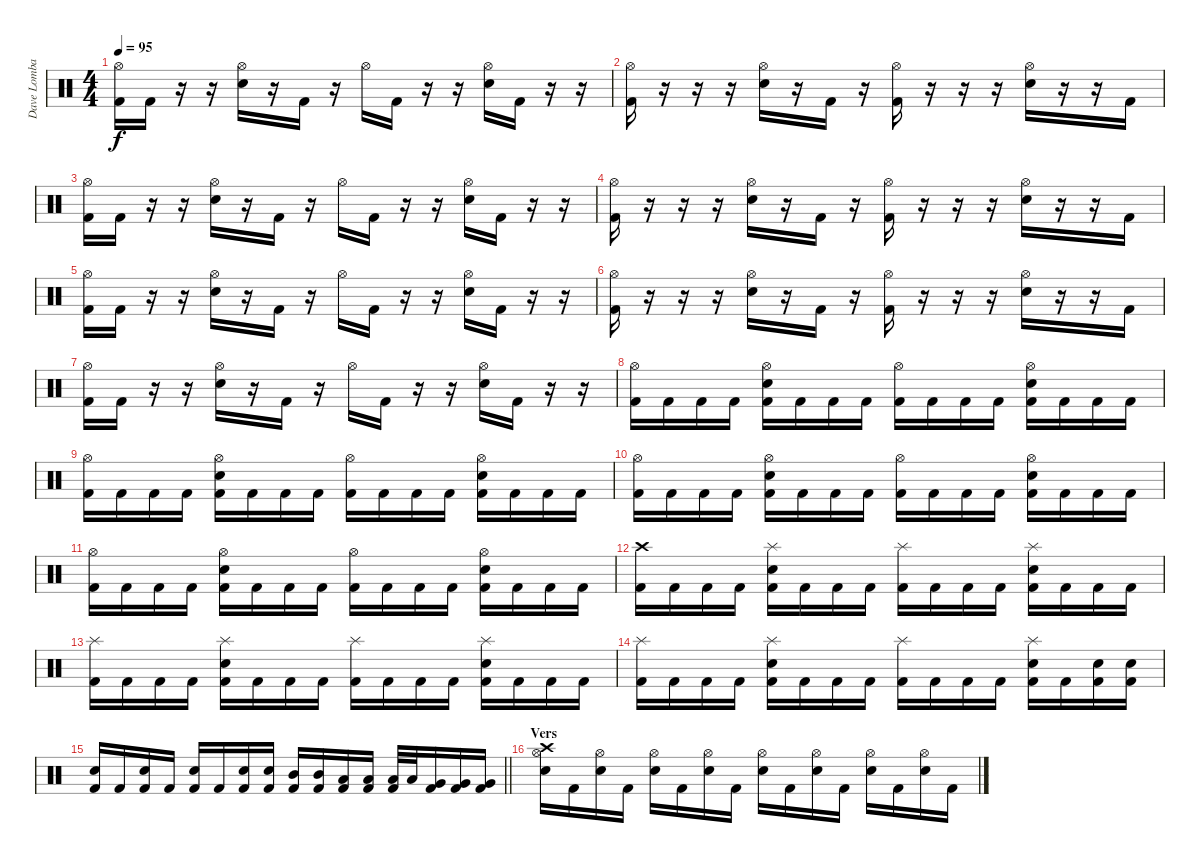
\track ("Dave Lombardo" "Dave Lomba") {instrument percussion}
\staff {score}
\articulation defaults
\ts (4 4)
\tempo 95
\clef neutral
\ks c
("Hi-Hat (open)" "Kick (hit) 2").16{dy f} "Kick (hit) 2".16 r.16 r.16 ("Hi-Hat (open)" "Snare (hit) 2").16 r.16 "Kick (hit) 2".16 r.16 "Hi-Hat (open)".16 "Kick (hit) 2".16 r.16 r.16 ("Hi-Hat (open)" "Snare (hit) 2").16 "Kick (hit) 2".16 r.16 r.16 |
("Hi-Hat (open)" "Kick (hit) 2").16 r.16 r.16 r.16 ("Hi-Hat (open)" "Snare (hit) 2").16 r.16 "Kick (hit) 2".16 r.16 ("Hi-Hat (open)" "Kick (hit) 2").16 r.16 r.16 r.16 ("Hi-Hat (open)" "Snare (hit) 2").16 r.16 r.16 "Kick (hit) 2".16 |
("Hi-Hat (open)" "Kick (hit) 2").16 "Kick (hit) 2".16 r.16 r.16 ("Hi-Hat (open)" "Snare (hit) 2").16 r.16 "Kick (hit) 2".16 r.16 "Hi-Hat (open)".16 "Kick (hit) 2".16 r.16 r.16 ("Hi-Hat (open)" "Snare (hit) 2").16 "Kick (hit) 2".16 r.16 r.16 |
("Hi-Hat (open)" "Kick (hit) 2").16 r.16 r.16 r.16 ("Hi-Hat (open)" "Snare (hit) 2").16 r.16 "Kick (hit) 2".16 r.16 ("Hi-Hat (open)" "Kick (hit) 2").16 r.16 r.16 r.16 ("Hi-Hat (open)" "Snare (hit) 2").16 r.16 r.16 "Kick (hit) 2".16 |
("Hi-Hat (open)" "Kick (hit) 2").16 "Kick (hit) 2".16 r.16 r.16 ("Hi-Hat (open)" "Snare (hit) 2").16 r.16 "Kick (hit) 2".16 r.16 "Hi-Hat (open)".16 "Kick (hit) 2".16 r.16 r.16 ("Hi-Hat (open)" "Snare (hit) 2").16 "Kick (hit) 2".16 r.16 r.16 |
("Hi-Hat (open)" "Kick (hit) 2").16 r.16 r.16 r.16 ("Hi-Hat (open)" "Snare (hit) 2").16 r.16 "Kick (hit) 2".16 r.16 ("Hi-Hat (open)" "Kick (hit) 2").16 r.16 r.16 r.16 ("Hi-Hat (open)" "Snare (hit) 2").16 r.16 r.16 "Kick (hit) 2".16 |
("Hi-Hat (open)" "Kick (hit) 2").16 "Kick (hit) 2".16 r.16 r.16 ("Hi-Hat (open)" "Snare (hit) 2").16 r.16 "Kick (hit) 2".16 r.16 "Hi-Hat (open)".16 "Kick (hit) 2".16 r.16 r.16 ("Hi-Hat (open)" "Snare (hit) 2").16 "Kick (hit) 2".16 r.16 r.16 |
("Hi-Hat (open)" "Kick (hit) 2").16 "Kick (hit) 2".16 "Kick (hit) 2".16 "Kick (hit) 2".16 ("Hi-Hat (open)" "Snare (hit) 2" "Kick (hit) 2").16 "Kick (hit) 2".16 "Kick (hit) 2".16 "Kick (hit) 2".16 ("Hi-Hat (open)" "Kick (hit) 2").16 "Kick (hit) 2".16 "Kick (hit) 2".16 "Kick (hit) 2".16 ("Hi-Hat (open)" "Snare (hit) 2" "Kick (hit) 2").16 "Kick (hit) 2".16 "Kick (hit) 2".16 "Kick (hit) 2".16 |
("Hi-Hat (open)" "Kick (hit) 2").16 "Kick (hit) 2".16 "Kick (hit) 2".16 "Kick (hit) 2".16 ("Hi-Hat (open)" "Snare (hit) 2" "Kick (hit) 2").16 "Kick (hit) 2".16 "Kick (hit) 2".16 "Kick (hit) 2".16 ("Hi-Hat (open)" "Kick (hit) 2").16 "Kick (hit) 2".16 "Kick (hit) 2".16 "Kick (hit) 2".16 ("Hi-Hat (open)" "Snare (hit) 2" "Kick (hit) 2").16 "Kick (hit) 2".16 "Kick (hit) 2".16 "Kick (hit) 2".16 |
("Hi-Hat (open)" "Kick (hit) 2").16 "Kick (hit) 2".16 "Kick (hit) 2".16 "Kick (hit) 2".16 ("Hi-Hat (open)" "Snare (hit) 2" "Kick (hit) 2").16 "Kick (hit) 2".16 "Kick (hit) 2".16 "Kick (hit) 2".16 ("Hi-Hat (open)" "Kick (hit) 2").16 "Kick (hit) 2".16 "Kick (hit) 2".16 "Kick (hit) 2".16 ("Hi-Hat (open)" "Snare (hit) 2" "Kick (hit) 2").16 "Kick (hit) 2".16 "Kick (hit) 2".16 "Kick (hit) 2".16 |
("Hi-Hat (open)" "Kick (hit) 2").16 "Kick (hit) 2".16 "Kick (hit) 2".16 "Kick (hit) 2".16 ("Hi-Hat (open)" "Snare (hit) 2" "Kick (hit) 2").16 "Kick (hit) 2".16 "Kick (hit) 2".16 "Kick (hit) 2".16 ("Hi-Hat (open)" "Kick (hit) 2").16 "Kick (hit) 2".16 "Kick (hit) 2".16 "Kick (hit) 2".16 ("Hi-Hat (open)" "Snare (hit) 2" "Kick (hit) 2").16 "Kick (hit) 2".16 "Kick (hit) 2".16 "Kick (hit) 2".16 |
("Crash high (hit)" "Kick (hit) 2").16 "Kick (hit) 2".16 "Kick (hit) 2".16 "Kick (hit) 2".16 ("Splash (hit)" "Snare (hit) 2" "Kick (hit) 2").16 "Kick (hit) 2".16 "Kick (hit) 2".16 "Kick (hit) 2".16 ("Splash (hit)" "Kick (hit) 2").16 "Kick (hit) 2".16 "Kick (hit) 2".16 "Kick (hit) 2".16 ("Splash (hit)" "Snare (hit) 2" "Kick (hit) 2").16 "Kick (hit) 2".16 "Kick (hit) 2".16 "Kick (hit) 2".16 |
("Splash (hit)" "Kick (hit) 2").16 "Kick (hit) 2".16 "Kick (hit) 2".16 "Kick (hit) 2".16 ("Splash (hit)" "Snare (hit) 2" "Kick (hit) 2").16 "Kick (hit) 2".16 "Kick (hit) 2".16 "Kick (hit) 2".16 ("Splash (hit)" "Kick (hit) 2").16 "Kick (hit) 2".16 "Kick (hit) 2".16 "Kick (hit) 2".16 ("Splash (hit)" "Snare (hit) 2" "Kick (hit) 2").16 "Kick (hit) 2".16 "Kick (hit) 2".16 "Kick (hit) 2".16 |
("Splash (hit)" "Kick (hit) 2").16 "Kick (hit) 2".16 "Kick (hit) 2".16 "Kick (hit) 2".16 ("Splash (hit)" "Snare (hit) 2" "Kick (hit) 2").16 "Kick (hit) 2".16 "Kick (hit) 2".16 "Kick (hit) 2".16 ("Splash (hit)" "Kick (hit) 2").16 "Kick (hit) 2".16 "Kick (hit) 2".16 "Kick (hit) 2".16 ("Splash (hit)" "Snare (hit) 2" "Kick (hit) 2").16 "Kick (hit) 2".16 ("Snare (hit) 2" "Kick (hit) 2").16 ("Snare (hit) 2" "Kick (hit) 2").16 |
\barLineRight lightlight
("Snare (hit) 2" "Kick (hit) 2").16 "Kick (hit) 2".16 ("Snare (hit) 2" "Kick (hit) 2").16 "Kick (hit) 2".16 ("Snare (hit) 2" "Kick (hit) 2").16 "Kick (hit) 2".16 ("Snare (hit) 2" "Kick (hit) 2").16 ("Snare (hit) 2" "Kick (hit) 2").16 ("Mid Tom (hit)" "Kick (hit) 2").16 ("Mid Tom (hit)" "Kick (hit) 2").16 ("Low Tom (hit)" "Kick (hit) 2").16 ("Low Tom (hit)" "Kick (hit) 2").16 ("Low Tom (hit)" "Kick (hit) 2").32 "Low Tom (hit)".32 ("Very Low Tom (hit)" "Kick (hit) 2").16 ("Very Low Tom (hit)" "Kick (hit) 2").16 ("Very Low Tom (hit)" "Kick (hit) 2").16 |
\section ("" "Vers")
("Crash high (hit)" "Hi-Hat (open)" "Snare (hit) 2").16 "Kick (hit) 2".16 ("Hi-Hat (open)" "Snare (hit) 2").16 "Kick (hit) 2".16 ("Hi-Hat (open)" "Snare (hit) 2").16 "Kick (hit) 2".16 ("Hi-Hat (open)" "Snare (hit) 2").16 "Kick (hit) 2".16 ("Hi-Hat (open)" "Snare (hit) 2").16 "Kick (hit) 2".16 ("Hi-Hat (open)" "Snare (hit) 2").16 "Kick (hit) 2".16 ("Hi-Hat (open)" "Snare (hit) 2").16 "Kick (hit) 2".16 ("Hi-Hat (open)" "Snare (hit) 2").16 "Kick (hit) 2".16
